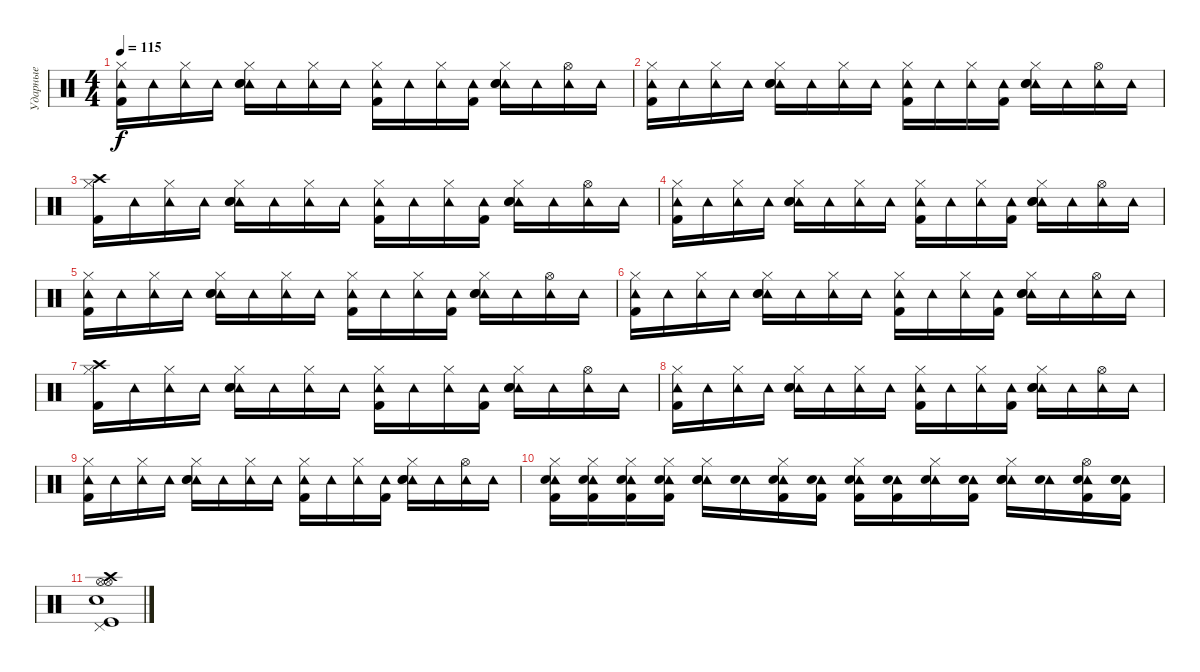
\track ("Ударные" "Ударные") {instrument percussion}
\staff {score}
\articulation defaults
\ts (4 4)
\tempo 115
\clef neutral
\ks c
("Tambourine (hit)" "Hi-Hat (closed)" "Kick (hit) 2").16{dy f} "Tambourine (hit)".16 ("Tambourine (hit)" "Hi-Hat (closed)").16 "Tambourine (hit)".16 ("Tambourine (hit)" "Hi-Hat (closed)" "Electric Snare (hit)" "Snare (hit) 2").16 "Tambourine (hit)".16 ("Tambourine (hit)" "Hi-Hat (closed)").16 "Tambourine (hit)".16 ("Tambourine (hit)" "Hi-Hat (closed)" "Kick (hit) 2").16 "Tambourine (hit)".16 ("Tambourine (hit)" "Hi-Hat (closed)").16 ("Tambourine (hit)" "Kick (hit) 2").16 ("Tambourine (hit)" "Hi-Hat (closed)" "Electric Snare (hit)" "Snare (hit) 2").16 "Tambourine (hit)".16 ("Tambourine (hit)" "Hi-Hat (open)").16 "Tambourine (hit)".16 |
("Tambourine (hit)" "Hi-Hat (closed)" "Kick (hit) 2").16 "Tambourine (hit)".16 ("Tambourine (hit)" "Hi-Hat (closed)").16 "Tambourine (hit)".16 ("Tambourine (hit)" "Hi-Hat (closed)" "Electric Snare (hit)" "Snare (hit) 2").16 "Tambourine (hit)".16 ("Tambourine (hit)" "Hi-Hat (closed)").16 "Tambourine (hit)".16 ("Tambourine (hit)" "Hi-Hat (closed)" "Kick (hit) 2").16 "Tambourine (hit)".16 ("Tambourine (hit)" "Hi-Hat (closed)").16 ("Tambourine (hit)" "Kick (hit) 2").16 ("Tambourine (hit)" "Hi-Hat (closed)" "Electric Snare (hit)" "Snare (hit) 2").16 "Tambourine (hit)".16 ("Tambourine (hit)" "Hi-Hat (open)").16 "Tambourine (hit)".16 |
("Crash high (hit)" "Hi-Hat (closed)" "Kick (hit) 2").16 "Tambourine (hit)".16 ("Tambourine (hit)" "Hi-Hat (closed)").16 "Tambourine (hit)".16 ("Tambourine (hit)" "Hi-Hat (closed)" "Electric Snare (hit)" "Snare (hit) 2").16 "Tambourine (hit)".16 ("Tambourine (hit)" "Hi-Hat (closed)").16 "Tambourine (hit)".16 ("Tambourine (hit)" "Hi-Hat (closed)" "Kick (hit) 2").16 "Tambourine (hit)".16 ("Tambourine (hit)" "Hi-Hat (closed)").16 ("Tambourine (hit)" "Kick (hit) 2").16 ("Tambourine (hit)" "Hi-Hat (closed)" "Electric Snare (hit)" "Snare (hit) 2").16 "Tambourine (hit)".16 ("Tambourine (hit)" "Hi-Hat (open)").16 "Tambourine (hit)".16 |
("Tambourine (hit)" "Hi-Hat (closed)" "Kick (hit) 2").16 "Tambourine (hit)".16 ("Tambourine (hit)" "Hi-Hat (closed)").16 "Tambourine (hit)".16 ("Tambourine (hit)" "Hi-Hat (closed)" "Electric Snare (hit)" "Snare (hit) 2").16 "Tambourine (hit)".16 ("Tambourine (hit)" "Hi-Hat (closed)").16 "Tambourine (hit)".16 ("Tambourine (hit)" "Hi-Hat (closed)" "Kick (hit) 2").16 "Tambourine (hit)".16 ("Tambourine (hit)" "Hi-Hat (closed)").16 ("Tambourine (hit)" "Kick (hit) 2").16 ("Tambourine (hit)" "Hi-Hat (closed)" "Electric Snare (hit)" "Snare (hit) 2").16 "Tambourine (hit)".16 ("Tambourine (hit)" "Hi-Hat (open)").16 "Tambourine (hit)".16 |
("Tambourine (hit)" "Hi-Hat (closed)" "Kick (hit) 2").16 "Tambourine (hit)".16 ("Tambourine (hit)" "Hi-Hat (closed)").16 "Tambourine (hit)".16 ("Tambourine (hit)" "Hi-Hat (closed)" "Electric Snare (hit)" "Snare (hit) 2").16 "Tambourine (hit)".16 ("Tambourine (hit)" "Hi-Hat (closed)").16 "Tambourine (hit)".16 ("Tambourine (hit)" "Hi-Hat (closed)" "Kick (hit) 2").16 "Tambourine (hit)".16 ("Tambourine (hit)" "Hi-Hat (closed)").16 ("Tambourine (hit)" "Kick (hit) 2").16 ("Tambourine (hit)" "Hi-Hat (closed)" "Electric Snare (hit)" "Snare (hit) 2").16 "Tambourine (hit)".16 ("Tambourine (hit)" "Hi-Hat (open)").16 "Tambourine (hit)".16 |
("Tambourine (hit)" "Hi-Hat (closed)" "Kick (hit) 2").16 "Tambourine (hit)".16 ("Tambourine (hit)" "Hi-Hat (closed)").16 "Tambourine (hit)".16 ("Tambourine (hit)" "Hi-Hat (closed)" "Electric Snare (hit)" "Snare (hit) 2").16 "Tambourine (hit)".16 ("Tambourine (hit)" "Hi-Hat (closed)").16 "Tambourine (hit)".16 ("Tambourine (hit)" "Hi-Hat (closed)" "Kick (hit) 2").16 "Tambourine (hit)".16 ("Tambourine (hit)" "Hi-Hat (closed)").16 ("Tambourine (hit)" "Kick (hit) 2").16 ("Tambourine (hit)" "Hi-Hat (closed)" "Electric Snare (hit)" "Snare (hit) 2").16 "Tambourine (hit)".16 ("Tambourine (hit)" "Hi-Hat (open)").16 "Tambourine (hit)".16 |
("Crash high (hit)" "Hi-Hat (closed)" "Kick (hit) 2").16 "Tambourine (hit)".16 ("Tambourine (hit)" "Hi-Hat (closed)").16 "Tambourine (hit)".16 ("Tambourine (hit)" "Hi-Hat (closed)" "Electric Snare (hit)" "Snare (hit) 2").16 "Tambourine (hit)".16 ("Tambourine (hit)" "Hi-Hat (closed)").16 "Tambourine (hit)".16 ("Tambourine (hit)" "Hi-Hat (closed)" "Kick (hit) 2").16 "Tambourine (hit)".16 ("Tambourine (hit)" "Hi-Hat (closed)").16 ("Tambourine (hit)" "Kick (hit) 2").16 ("Tambourine (hit)" "Hi-Hat (closed)" "Electric Snare (hit)" "Snare (hit) 2").16 "Tambourine (hit)".16 ("Tambourine (hit)" "Hi-Hat (open)").16 "Tambourine (hit)".16 |
("Tambourine (hit)" "Hi-Hat (closed)" "Kick (hit) 2").16 "Tambourine (hit)".16 ("Tambourine (hit)" "Hi-Hat (closed)").16 "Tambourine (hit)".16 ("Tambourine (hit)" "Hi-Hat (closed)" "Electric Snare (hit)" "Snare (hit) 2").16 "Tambourine (hit)".16 ("Tambourine (hit)" "Hi-Hat (closed)").16 "Tambourine (hit)".16 ("Tambourine (hit)" "Hi-Hat (closed)" "Kick (hit) 2").16 "Tambourine (hit)".16 ("Tambourine (hit)" "Hi-Hat (closed)").16 ("Tambourine (hit)" "Kick (hit) 2").16 ("Tambourine (hit)" "Hi-Hat (closed)" "Electric Snare (hit)" "Snare (hit) 2").16 "Tambourine (hit)".16 ("Tambourine (hit)" "Hi-Hat (open)").16 "Tambourine (hit)".16 |
("Tambourine (hit)" "Hi-Hat (closed)" "Kick (hit) 2").16 "Tambourine (hit)".16 ("Tambourine (hit)" "Hi-Hat (closed)").16 "Tambourine (hit)".16 ("Tambourine (hit)" "Hi-Hat (closed)" "Electric Snare (hit)" "Snare (hit) 2").16 "Tambourine (hit)".16 ("Tambourine (hit)" "Hi-Hat (closed)").16 "Tambourine (hit)".16 ("Tambourine (hit)" "Hi-Hat (closed)" "Kick (hit) 2").16 "Tambourine (hit)".16 ("Tambourine (hit)" "Hi-Hat (closed)").16 ("Tambourine (hit)" "Kick (hit) 2").16 ("Tambourine (hit)" "Hi-Hat (closed)" "Electric Snare (hit)" "Snare (hit) 2").16 "Tambourine (hit)".16 ("Tambourine (hit)" "Hi-Hat (open)").16 "Tambourine (hit)".16 |
("Tambourine (hit)" "Hi-Hat (closed)" "Electric Snare (hit)" "Kick (hit) 2").16 ("Tambourine (hit)" "Hi-Hat (closed)" "Electric Snare (hit)" "Kick (hit) 2").16 ("Tambourine (hit)" "Hi-Hat (closed)" "Electric Snare (hit)" "Kick (hit) 2").16 ("Tambourine (hit)" "Hi-Hat (closed)" "Electric Snare (hit)" "Kick (hit) 2").16 ("Tambourine (hit)" "Hi-Hat (closed)" "Electric Snare (hit)" "Snare (hit) 2").16 ("Tambourine (hit)" "Electric Snare (hit)").16 ("Tambourine (hit)" "Hi-Hat (closed)" "Electric Snare (hit)" "Kick (hit) 2").16 ("Tambourine (hit)" "Electric Snare (hit)" "Kick (hit) 2").16 ("Tambourine (hit)" "Hi-Hat (closed)" "Electric Snare (hit)" "Kick (hit) 2").16 ("Tambourine (hit)" "Electric Snare (hit)" "Kick (hit) 2").16 ("Tambourine (hit)" "Hi-Hat (closed)" "Electric Snare (hit)").16 ("Tambourine (hit)" "Electric Snare (hit)" "Kick (hit) 2").16 ("Tambourine (hit)" "Hi-Hat (closed)" "Electric Snare (hit)" "Snare (hit) 2").16 ("Tambourine (hit)" "Electric Snare (hit)").16 ("Tambourine (hit)" "Hi-Hat (open)" "Electric Snare (hit)" "Kick (hit) 2").16 ("Tambourine (hit)" "Electric Snare (hit)" "Snare (hit) 2" "Kick (hit) 2").16 |
("Hi-Hat (open)" "Crash high (hit)" "Hi-Hat (open)" "Pedal Hi-Hat (hit)" "Kick (hit)" "Snare (hit) 2").1
